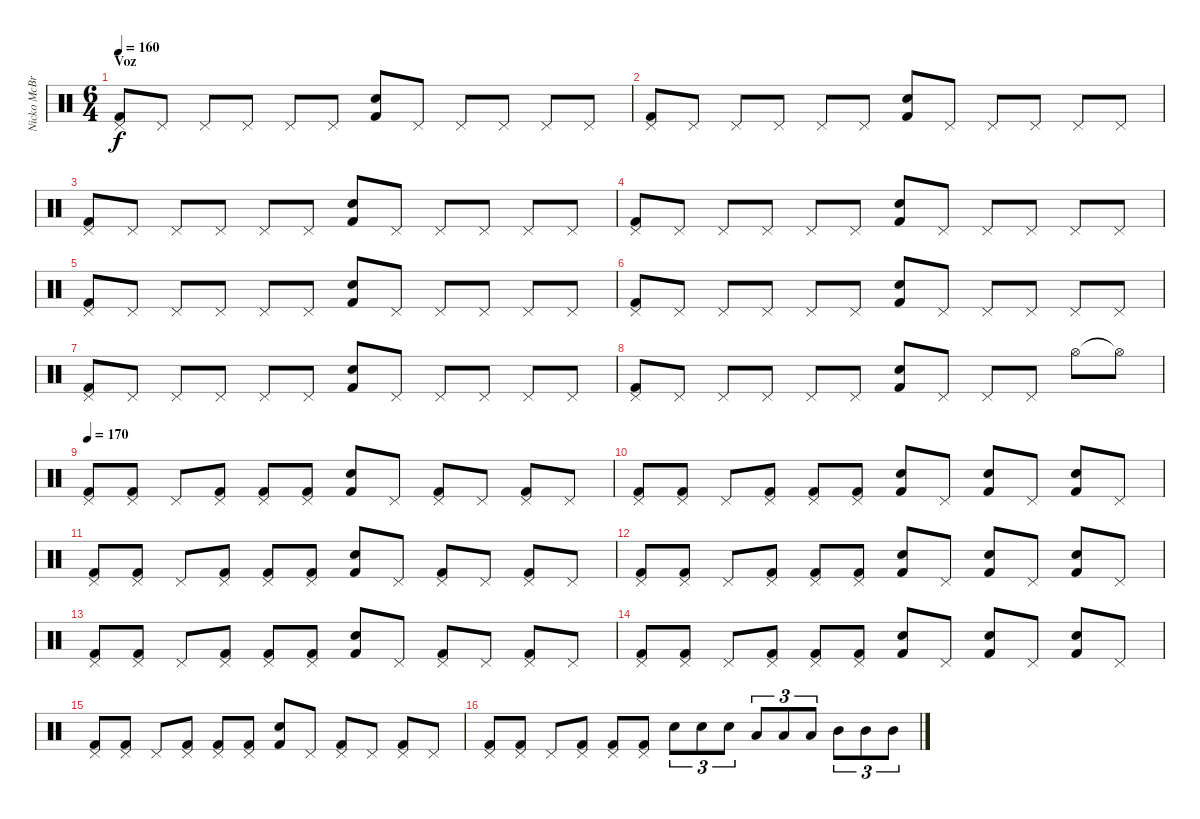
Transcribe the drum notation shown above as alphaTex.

\track ("Nicko McBrain" "Nicko McBr") {instrument percussion}
\staff {score}
\articulation defaults
\ts (6 4)
\section ("" "Voz")
\tempo 160
\clef neutral
\ks c
("Pedal Hi-Hat (hit)" "Kick (hit) 2").8{dy f balance 15} "Pedal Hi-Hat (hit)".8 "Pedal Hi-Hat (hit)".8 "Pedal Hi-Hat (hit)".8 "Pedal Hi-Hat (hit)".8 "Pedal Hi-Hat (hit)".8 ("Snare (hit) 2" "Kick (hit) 2").8 "Pedal Hi-Hat (hit)".8 "Pedal Hi-Hat (hit)".8 "Pedal Hi-Hat (hit)".8 "Pedal Hi-Hat (hit)".8 "Pedal Hi-Hat (hit)".8 |
\section ("" "")
("Pedal Hi-Hat (hit)" "Kick (hit) 2").8 "Pedal Hi-Hat (hit)".8 "Pedal Hi-Hat (hit)".8 "Pedal Hi-Hat (hit)".8 "Pedal Hi-Hat (hit)".8 "Pedal Hi-Hat (hit)".8 ("Snare (hit) 2" "Kick (hit) 2").8 "Pedal Hi-Hat (hit)".8 "Pedal Hi-Hat (hit)".8 "Pedal Hi-Hat (hit)".8 "Pedal Hi-Hat (hit)".8 "Pedal Hi-Hat (hit)".8 |
("Pedal Hi-Hat (hit)" "Kick (hit) 2").8 "Pedal Hi-Hat (hit)".8 "Pedal Hi-Hat (hit)".8 "Pedal Hi-Hat (hit)".8 "Pedal Hi-Hat (hit)".8 "Pedal Hi-Hat (hit)".8 ("Snare (hit) 2" "Kick (hit) 2").8 "Pedal Hi-Hat (hit)".8 "Pedal Hi-Hat (hit)".8 "Pedal Hi-Hat (hit)".8 "Pedal Hi-Hat (hit)".8 "Pedal Hi-Hat (hit)".8 |
("Pedal Hi-Hat (hit)" "Kick (hit) 2").8 "Pedal Hi-Hat (hit)".8 "Pedal Hi-Hat (hit)".8 "Pedal Hi-Hat (hit)".8 "Pedal Hi-Hat (hit)".8 "Pedal Hi-Hat (hit)".8 ("Snare (hit) 2" "Kick (hit) 2").8 "Pedal Hi-Hat (hit)".8 "Pedal Hi-Hat (hit)".8 "Pedal Hi-Hat (hit)".8 "Pedal Hi-Hat (hit)".8 "Pedal Hi-Hat (hit)".8 |
("Pedal Hi-Hat (hit)" "Kick (hit) 2").8 "Pedal Hi-Hat (hit)".8 "Pedal Hi-Hat (hit)".8 "Pedal Hi-Hat (hit)".8 "Pedal Hi-Hat (hit)".8 "Pedal Hi-Hat (hit)".8 ("Snare (hit) 2" "Kick (hit) 2").8 "Pedal Hi-Hat (hit)".8 "Pedal Hi-Hat (hit)".8 "Pedal Hi-Hat (hit)".8 "Pedal Hi-Hat (hit)".8 "Pedal Hi-Hat (hit)".8 |
("Pedal Hi-Hat (hit)" "Kick (hit) 2").8 "Pedal Hi-Hat (hit)".8 "Pedal Hi-Hat (hit)".8 "Pedal Hi-Hat (hit)".8 "Pedal Hi-Hat (hit)".8 "Pedal Hi-Hat (hit)".8 ("Snare (hit) 2" "Kick (hit) 2").8 "Pedal Hi-Hat (hit)".8 "Pedal Hi-Hat (hit)".8 "Pedal Hi-Hat (hit)".8 "Pedal Hi-Hat (hit)".8 "Pedal Hi-Hat (hit)".8 |
("Pedal Hi-Hat (hit)" "Kick (hit) 2").8 "Pedal Hi-Hat (hit)".8 "Pedal Hi-Hat (hit)".8 "Pedal Hi-Hat (hit)".8 "Pedal Hi-Hat (hit)".8 "Pedal Hi-Hat (hit)".8 ("Snare (hit) 2" "Kick (hit) 2").8 "Pedal Hi-Hat (hit)".8 "Pedal Hi-Hat (hit)".8 "Pedal Hi-Hat (hit)".8 "Pedal Hi-Hat (hit)".8 "Pedal Hi-Hat (hit)".8 |
("Pedal Hi-Hat (hit)" "Kick (hit) 2").8 "Pedal Hi-Hat (hit)".8 "Pedal Hi-Hat (hit)".8 "Pedal Hi-Hat (hit)".8 "Pedal Hi-Hat (hit)".8 "Pedal Hi-Hat (hit)".8 ("Snare (hit) 2" "Kick (hit) 2").8 "Pedal Hi-Hat (hit)".8 "Pedal Hi-Hat (hit)".8 "Pedal Hi-Hat (hit)".8 "Hi-Hat (open)".8 "Hi-Hat (open)"{t}.8 |
\tempo 170
("Pedal Hi-Hat (hit)" "Kick (hit) 2").8 ("Pedal Hi-Hat (hit)" "Kick (hit) 2").8 "Pedal Hi-Hat (hit)".8 ("Pedal Hi-Hat (hit)" "Kick (hit) 2").8 ("Pedal Hi-Hat (hit)" "Kick (hit) 2").8 ("Pedal Hi-Hat (hit)" "Kick (hit) 2").8 ("Snare (hit) 2" "Kick (hit) 2").8 "Pedal Hi-Hat (hit)".8 ("Pedal Hi-Hat (hit)" "Kick (hit) 2").8 "Pedal Hi-Hat (hit)".8 ("Pedal Hi-Hat (hit)" "Kick (hit) 2").8 "Pedal Hi-Hat (hit)".8 |
("Pedal Hi-Hat (hit)" "Kick (hit) 2").8 ("Pedal Hi-Hat (hit)" "Kick (hit) 2").8 "Pedal Hi-Hat (hit)".8 ("Pedal Hi-Hat (hit)" "Kick (hit) 2").8 ("Pedal Hi-Hat (hit)" "Kick (hit) 2").8 ("Pedal Hi-Hat (hit)" "Kick (hit) 2").8 ("Snare (hit) 2" "Kick (hit) 2").8 "Pedal Hi-Hat (hit)".8 ("Snare (hit) 2" "Kick (hit) 2").8 "Pedal Hi-Hat (hit)".8 ("Snare (hit) 2" "Kick (hit) 2").8 "Pedal Hi-Hat (hit)".8 |
("Pedal Hi-Hat (hit)" "Kick (hit) 2").8 ("Pedal Hi-Hat (hit)" "Kick (hit) 2").8 "Pedal Hi-Hat (hit)".8 ("Pedal Hi-Hat (hit)" "Kick (hit) 2").8 ("Pedal Hi-Hat (hit)" "Kick (hit) 2").8 ("Pedal Hi-Hat (hit)" "Kick (hit) 2").8 ("Snare (hit) 2" "Kick (hit) 2").8 "Pedal Hi-Hat (hit)".8 ("Pedal Hi-Hat (hit)" "Kick (hit) 2").8 "Pedal Hi-Hat (hit)".8 ("Pedal Hi-Hat (hit)" "Kick (hit) 2").8 "Pedal Hi-Hat (hit)".8 |
("Pedal Hi-Hat (hit)" "Kick (hit) 2").8 ("Pedal Hi-Hat (hit)" "Kick (hit) 2").8 "Pedal Hi-Hat (hit)".8 ("Pedal Hi-Hat (hit)" "Kick (hit) 2").8 ("Pedal Hi-Hat (hit)" "Kick (hit) 2").8 ("Pedal Hi-Hat (hit)" "Kick (hit) 2").8 ("Snare (hit) 2" "Kick (hit) 2").8 "Pedal Hi-Hat (hit)".8 ("Snare (hit) 2" "Kick (hit) 2").8 "Pedal Hi-Hat (hit)".8 ("Snare (hit) 2" "Kick (hit) 2").8 "Pedal Hi-Hat (hit)".8 |
("Pedal Hi-Hat (hit)" "Kick (hit) 2").8 ("Pedal Hi-Hat (hit)" "Kick (hit) 2").8 "Pedal Hi-Hat (hit)".8 ("Pedal Hi-Hat (hit)" "Kick (hit) 2").8 ("Pedal Hi-Hat (hit)" "Kick (hit) 2").8 ("Pedal Hi-Hat (hit)" "Kick (hit) 2").8 ("Snare (hit) 2" "Kick (hit) 2").8 "Pedal Hi-Hat (hit)".8 ("Pedal Hi-Hat (hit)" "Kick (hit) 2").8 "Pedal Hi-Hat (hit)".8 ("Pedal Hi-Hat (hit)" "Kick (hit) 2").8 "Pedal Hi-Hat (hit)".8 |
("Pedal Hi-Hat (hit)" "Kick (hit) 2").8 ("Pedal Hi-Hat (hit)" "Kick (hit) 2").8 "Pedal Hi-Hat (hit)".8 ("Pedal Hi-Hat (hit)" "Kick (hit) 2").8 ("Pedal Hi-Hat (hit)" "Kick (hit) 2").8 ("Pedal Hi-Hat (hit)" "Kick (hit) 2").8 ("Snare (hit) 2" "Kick (hit) 2").8 "Pedal Hi-Hat (hit)".8 ("Snare (hit) 2" "Kick (hit) 2").8 "Pedal Hi-Hat (hit)".8 ("Snare (hit) 2" "Kick (hit) 2").8 "Pedal Hi-Hat (hit)".8 |
("Pedal Hi-Hat (hit)" "Kick (hit) 2").8 ("Pedal Hi-Hat (hit)" "Kick (hit) 2").8 "Pedal Hi-Hat (hit)".8 ("Pedal Hi-Hat (hit)" "Kick (hit) 2").8 ("Pedal Hi-Hat (hit)" "Kick (hit) 2").8 ("Pedal Hi-Hat (hit)" "Kick (hit) 2").8 ("Snare (hit) 2" "Kick (hit) 2").8 "Pedal Hi-Hat (hit)".8 ("Pedal Hi-Hat (hit)" "Kick (hit) 2").8 "Pedal Hi-Hat (hit)".8 ("Pedal Hi-Hat (hit)" "Kick (hit) 2").8 "Pedal Hi-Hat (hit)".8 |
("Pedal Hi-Hat (hit)" "Kick (hit) 2").8 ("Pedal Hi-Hat (hit)" "Kick (hit) 2").8 "Pedal Hi-Hat (hit)".8 ("Pedal Hi-Hat (hit)" "Kick (hit) 2").8 ("Pedal Hi-Hat (hit)" "Kick (hit) 2").8 ("Pedal Hi-Hat (hit)" "Kick (hit) 2").8 "Snare (hit) 2".8{tu (3 2)} "Snare (hit) 2".8{tu (3 2)} "Snare (hit) 2".8{tu (3 2)} "Low Tom (hit)".8{tu (3 2)} "Low Tom (hit)".8{tu (3 2)} "Low Tom (hit)".8{tu (3 2)} "Mid Tom (hit)".8{tu (3 2)} "Mid Tom (hit)".8{tu (3 2)} "Mid Tom (hit)".8{tu (3 2)}
